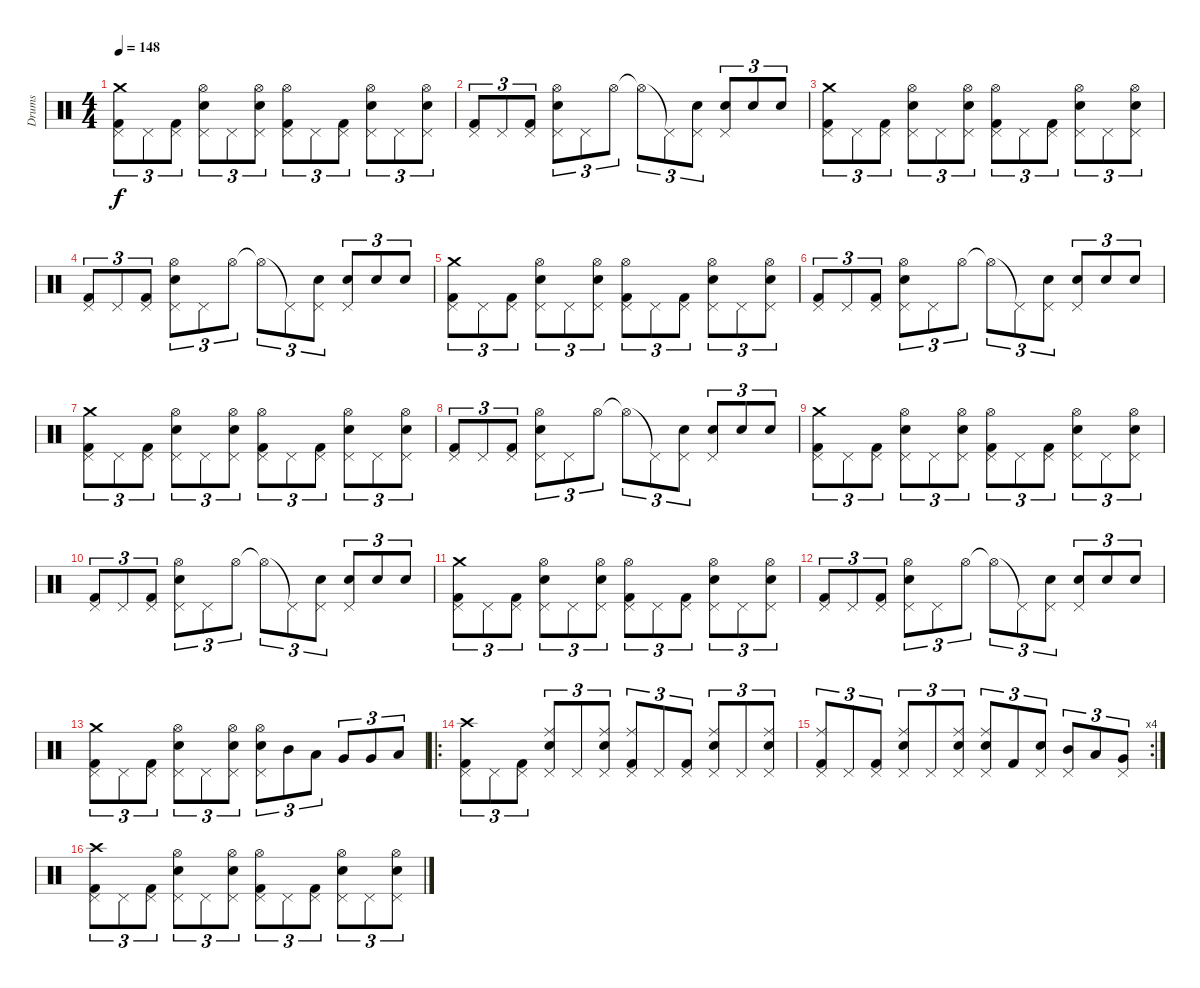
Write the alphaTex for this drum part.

\track ("Drums" "Drums") {instrument percussion}
\staff {score}
\articulation defaults
\ts (4 4)
\tempo 148
\clef neutral
\ks c
("Kick (hit) 2" "Pedal Hi-Hat (hit)" "Crash medium (hit)").8{tu (3 2) dy f} "Pedal Hi-Hat (hit)".8{tu (3 2)} ("Kick (hit) 2" "Pedal Hi-Hat (hit)").8{tu (3 2)} ("Snare (hit) 2" "Pedal Hi-Hat (hit)" "Hi-Hat (open)").8{tu (3 2)} "Pedal Hi-Hat (hit)".8{tu (3 2)} ("Snare (hit) 2" "Pedal Hi-Hat (hit)" "Hi-Hat (open)").8{tu (3 2)} ("Kick (hit) 2" "Pedal Hi-Hat (hit)" "Hi-Hat (open)").8{tu (3 2)} "Pedal Hi-Hat (hit)".8{tu (3 2)} ("Kick (hit) 2" "Pedal Hi-Hat (hit)").8{tu (3 2)} ("Snare (hit) 2" "Pedal Hi-Hat (hit)" "Hi-Hat (open)").8{tu (3 2)} "Pedal Hi-Hat (hit)".8{tu (3 2)} ("Snare (hit) 2" "Pedal Hi-Hat (hit)" "Hi-Hat (open)").8{tu (3 2)} |
("Kick (hit) 2" "Pedal Hi-Hat (hit)").8{tu (3 2)} "Pedal Hi-Hat (hit)".8{tu (3 2)} ("Kick (hit) 2" "Pedal Hi-Hat (hit)").8{tu (3 2)} ("Snare (hit) 2" "Pedal Hi-Hat (hit)" "Hi-Hat (open)").8{tu (3 2)} "Pedal Hi-Hat (hit)".8{tu (3 2)} "Hi-Hat (open)".8{tu (3 2)} "Hi-Hat (open)"{t}.8{tu (3 2)} "Pedal Hi-Hat (hit)"{t}.8{tu (3 2)} ("Snare (hit) 2" "Pedal Hi-Hat (hit)").8{tu (3 2)} ("Snare (hit) 2" "Pedal Hi-Hat (hit)").8{tu (3 2)} "Snare (hit) 2".8{tu (3 2)} "Snare (hit) 2".8{tu (3 2)} |
("Kick (hit) 2" "Pedal Hi-Hat (hit)" "Crash medium (hit)").8{tu (3 2)} "Pedal Hi-Hat (hit)".8{tu (3 2)} ("Kick (hit) 2" "Pedal Hi-Hat (hit)").8{tu (3 2)} ("Snare (hit) 2" "Pedal Hi-Hat (hit)" "Hi-Hat (open)").8{tu (3 2)} "Pedal Hi-Hat (hit)".8{tu (3 2)} ("Snare (hit) 2" "Pedal Hi-Hat (hit)" "Hi-Hat (open)").8{tu (3 2)} ("Kick (hit) 2" "Pedal Hi-Hat (hit)" "Hi-Hat (open)").8{tu (3 2)} "Pedal Hi-Hat (hit)".8{tu (3 2)} ("Kick (hit) 2" "Pedal Hi-Hat (hit)").8{tu (3 2)} ("Snare (hit) 2" "Pedal Hi-Hat (hit)" "Hi-Hat (open)").8{tu (3 2)} "Pedal Hi-Hat (hit)".8{tu (3 2)} ("Snare (hit) 2" "Pedal Hi-Hat (hit)" "Hi-Hat (open)").8{tu (3 2)} |
("Kick (hit) 2" "Pedal Hi-Hat (hit)").8{tu (3 2)} "Pedal Hi-Hat (hit)".8{tu (3 2)} ("Kick (hit) 2" "Pedal Hi-Hat (hit)").8{tu (3 2)} ("Snare (hit) 2" "Pedal Hi-Hat (hit)" "Hi-Hat (open)").8{tu (3 2)} "Pedal Hi-Hat (hit)".8{tu (3 2)} "Hi-Hat (open)".8{tu (3 2)} "Hi-Hat (open)"{t}.8{tu (3 2)} "Pedal Hi-Hat (hit)"{t}.8{tu (3 2)} ("Snare (hit) 2" "Pedal Hi-Hat (hit)").8{tu (3 2)} ("Snare (hit) 2" "Pedal Hi-Hat (hit)").8{tu (3 2)} "Snare (hit) 2".8{tu (3 2)} "Snare (hit) 2".8{tu (3 2)} |
("Kick (hit) 2" "Pedal Hi-Hat (hit)" "Crash medium (hit)").8{tu (3 2)} "Pedal Hi-Hat (hit)".8{tu (3 2)} ("Kick (hit) 2" "Pedal Hi-Hat (hit)").8{tu (3 2)} ("Snare (hit) 2" "Pedal Hi-Hat (hit)" "Hi-Hat (open)").8{tu (3 2)} "Pedal Hi-Hat (hit)".8{tu (3 2)} ("Snare (hit) 2" "Pedal Hi-Hat (hit)" "Hi-Hat (open)").8{tu (3 2)} ("Kick (hit) 2" "Pedal Hi-Hat (hit)" "Hi-Hat (open)").8{tu (3 2)} "Pedal Hi-Hat (hit)".8{tu (3 2)} ("Kick (hit) 2" "Pedal Hi-Hat (hit)").8{tu (3 2)} ("Snare (hit) 2" "Pedal Hi-Hat (hit)" "Hi-Hat (open)").8{tu (3 2)} "Pedal Hi-Hat (hit)".8{tu (3 2)} ("Snare (hit) 2" "Pedal Hi-Hat (hit)" "Hi-Hat (open)").8{tu (3 2)} |
("Kick (hit) 2" "Pedal Hi-Hat (hit)").8{tu (3 2)} "Pedal Hi-Hat (hit)".8{tu (3 2)} ("Kick (hit) 2" "Pedal Hi-Hat (hit)").8{tu (3 2)} ("Snare (hit) 2" "Pedal Hi-Hat (hit)" "Hi-Hat (open)").8{tu (3 2)} "Pedal Hi-Hat (hit)".8{tu (3 2)} "Hi-Hat (open)".8{tu (3 2)} "Hi-Hat (open)"{t}.8{tu (3 2)} "Pedal Hi-Hat (hit)"{t}.8{tu (3 2)} ("Snare (hit) 2" "Pedal Hi-Hat (hit)").8{tu (3 2)} ("Snare (hit) 2" "Pedal Hi-Hat (hit)").8{tu (3 2)} "Snare (hit) 2".8{tu (3 2)} "Snare (hit) 2".8{tu (3 2)} |
("Kick (hit) 2" "Pedal Hi-Hat (hit)" "Crash medium (hit)").8{tu (3 2)} "Pedal Hi-Hat (hit)".8{tu (3 2)} ("Kick (hit) 2" "Pedal Hi-Hat (hit)").8{tu (3 2)} ("Snare (hit) 2" "Pedal Hi-Hat (hit)" "Hi-Hat (open)").8{tu (3 2)} "Pedal Hi-Hat (hit)".8{tu (3 2)} ("Snare (hit) 2" "Pedal Hi-Hat (hit)" "Hi-Hat (open)").8{tu (3 2)} ("Kick (hit) 2" "Pedal Hi-Hat (hit)" "Hi-Hat (open)").8{tu (3 2)} "Pedal Hi-Hat (hit)".8{tu (3 2)} ("Kick (hit) 2" "Pedal Hi-Hat (hit)").8{tu (3 2)} ("Snare (hit) 2" "Pedal Hi-Hat (hit)" "Hi-Hat (open)").8{tu (3 2)} "Pedal Hi-Hat (hit)".8{tu (3 2)} ("Snare (hit) 2" "Pedal Hi-Hat (hit)" "Hi-Hat (open)").8{tu (3 2)} |
("Kick (hit) 2" "Pedal Hi-Hat (hit)").8{tu (3 2)} "Pedal Hi-Hat (hit)".8{tu (3 2)} ("Kick (hit) 2" "Pedal Hi-Hat (hit)").8{tu (3 2)} ("Snare (hit) 2" "Pedal Hi-Hat (hit)" "Hi-Hat (open)").8{tu (3 2)} "Pedal Hi-Hat (hit)".8{tu (3 2)} "Hi-Hat (open)".8{tu (3 2)} "Hi-Hat (open)"{t}.8{tu (3 2)} "Pedal Hi-Hat (hit)"{t}.8{tu (3 2)} ("Snare (hit) 2" "Pedal Hi-Hat (hit)").8{tu (3 2)} ("Snare (hit) 2" "Pedal Hi-Hat (hit)").8{tu (3 2)} "Snare (hit) 2".8{tu (3 2)} "Snare (hit) 2".8{tu (3 2)} |
("Kick (hit) 2" "Pedal Hi-Hat (hit)" "Crash medium (hit)").8{tu (3 2)} "Pedal Hi-Hat (hit)".8{tu (3 2)} ("Kick (hit) 2" "Pedal Hi-Hat (hit)").8{tu (3 2)} ("Snare (hit) 2" "Pedal Hi-Hat (hit)" "Hi-Hat (open)").8{tu (3 2)} "Pedal Hi-Hat (hit)".8{tu (3 2)} ("Snare (hit) 2" "Pedal Hi-Hat (hit)" "Hi-Hat (open)").8{tu (3 2)} ("Kick (hit) 2" "Pedal Hi-Hat (hit)" "Hi-Hat (open)").8{tu (3 2)} "Pedal Hi-Hat (hit)".8{tu (3 2)} ("Kick (hit) 2" "Pedal Hi-Hat (hit)").8{tu (3 2)} ("Snare (hit) 2" "Pedal Hi-Hat (hit)" "Hi-Hat (open)").8{tu (3 2)} "Pedal Hi-Hat (hit)".8{tu (3 2)} ("Snare (hit) 2" "Pedal Hi-Hat (hit)" "Hi-Hat (open)").8{tu (3 2)} |
("Kick (hit) 2" "Pedal Hi-Hat (hit)").8{tu (3 2)} "Pedal Hi-Hat (hit)".8{tu (3 2)} ("Kick (hit) 2" "Pedal Hi-Hat (hit)").8{tu (3 2)} ("Snare (hit) 2" "Pedal Hi-Hat (hit)" "Hi-Hat (open)").8{tu (3 2)} "Pedal Hi-Hat (hit)".8{tu (3 2)} "Hi-Hat (open)".8{tu (3 2)} "Hi-Hat (open)"{t}.8{tu (3 2)} "Pedal Hi-Hat (hit)"{t}.8{tu (3 2)} ("Snare (hit) 2" "Pedal Hi-Hat (hit)").8{tu (3 2)} ("Snare (hit) 2" "Pedal Hi-Hat (hit)").8{tu (3 2)} "Snare (hit) 2".8{tu (3 2)} "Snare (hit) 2".8{tu (3 2)} |
("Kick (hit) 2" "Pedal Hi-Hat (hit)" "Crash medium (hit)").8{tu (3 2)} "Pedal Hi-Hat (hit)".8{tu (3 2)} ("Kick (hit) 2" "Pedal Hi-Hat (hit)").8{tu (3 2)} ("Snare (hit) 2" "Pedal Hi-Hat (hit)" "Hi-Hat (open)").8{tu (3 2)} "Pedal Hi-Hat (hit)".8{tu (3 2)} ("Snare (hit) 2" "Pedal Hi-Hat (hit)" "Hi-Hat (open)").8{tu (3 2)} ("Kick (hit) 2" "Pedal Hi-Hat (hit)" "Hi-Hat (open)").8{tu (3 2)} "Pedal Hi-Hat (hit)".8{tu (3 2)} ("Kick (hit) 2" "Pedal Hi-Hat (hit)").8{tu (3 2)} ("Snare (hit) 2" "Pedal Hi-Hat (hit)" "Hi-Hat (open)").8{tu (3 2)} "Pedal Hi-Hat (hit)".8{tu (3 2)} ("Snare (hit) 2" "Pedal Hi-Hat (hit)" "Hi-Hat (open)").8{tu (3 2)} |
("Kick (hit) 2" "Pedal Hi-Hat (hit)").8{tu (3 2)} "Pedal Hi-Hat (hit)".8{tu (3 2)} ("Kick (hit) 2" "Pedal Hi-Hat (hit)").8{tu (3 2)} ("Snare (hit) 2" "Pedal Hi-Hat (hit)" "Hi-Hat (open)").8{tu (3 2)} "Pedal Hi-Hat (hit)".8{tu (3 2)} "Hi-Hat (open)".8{tu (3 2)} "Hi-Hat (open)"{t}.8{tu (3 2)} "Pedal Hi-Hat (hit)"{t}.8{tu (3 2)} ("Snare (hit) 2" "Pedal Hi-Hat (hit)").8{tu (3 2)} ("Snare (hit) 2" "Pedal Hi-Hat (hit)").8{tu (3 2)} "Snare (hit) 2".8{tu (3 2)} "Snare (hit) 2".8{tu (3 2)} |
("Kick (hit) 2" "Pedal Hi-Hat (hit)" "Crash medium (hit)").8{tu (3 2)} "Pedal Hi-Hat (hit)".8{tu (3 2)} ("Kick (hit) 2" "Pedal Hi-Hat (hit)").8{tu (3 2)} ("Snare (hit) 2" "Pedal Hi-Hat (hit)" "Hi-Hat (open)").8{tu (3 2)} "Pedal Hi-Hat (hit)".8{tu (3 2)} ("Snare (hit) 2" "Pedal Hi-Hat (hit)" "Hi-Hat (open)").8{tu (3 2)} ("Snare (hit) 2" "Pedal Hi-Hat (hit)" "Hi-Hat (open)").8{tu (3 2)} "Mid Tom (hit)".8{tu (3 2)} "Low Tom (hit)".8{tu (3 2)} "Very Low Tom (hit)".8{tu (3 2)} "Very Low Tom (hit)".8{tu (3 2)} "Low Floor Tom (hit)".8{tu (3 2)} |
\ro
("Kick (hit) 2" "Pedal Hi-Hat (hit)" "Crash high (hit)").8{tu (3 2)} "Pedal Hi-Hat (hit)".8{tu (3 2)} ("Kick (hit) 2" "Pedal Hi-Hat (hit)").8{tu (3 2)} ("Snare (hit) 2" "Pedal Hi-Hat (hit)" "Ride (middle)").8{tu (3 2)} "Pedal Hi-Hat (hit)".8{tu (3 2)} ("Snare (hit) 2" "Pedal Hi-Hat (hit)" "Ride (middle)").8{tu (3 2)} ("Kick (hit) 2" "Pedal Hi-Hat (hit)" "Ride (middle)").8{tu (3 2)} "Pedal Hi-Hat (hit)".8{tu (3 2)} ("Kick (hit) 2" "Pedal Hi-Hat (hit)").8{tu (3 2)} ("Snare (hit) 2" "Pedal Hi-Hat (hit)" "Ride (middle)").8{tu (3 2)} "Pedal Hi-Hat (hit)".8{tu (3 2)} ("Snare (hit) 2" "Pedal Hi-Hat (hit)" "Ride (middle)").8{tu (3 2)} |
\rc 4
("Kick (hit) 2" "Pedal Hi-Hat (hit)" "Ride (middle)").8{tu (3 2)} "Pedal Hi-Hat (hit)".8{tu (3 2)} ("Kick (hit) 2" "Pedal Hi-Hat (hit)").8{tu (3 2)} ("Snare (hit) 2" "Pedal Hi-Hat (hit)" "Ride (middle)").8{tu (3 2)} "Pedal Hi-Hat (hit)".8{tu (3 2)} ("Snare (hit) 2" "Pedal Hi-Hat (hit)" "Ride (middle)").8{tu (3 2)} ("Snare (hit) 2" "Pedal Hi-Hat (hit)" "Ride (middle)").8{tu (3 2)} "Kick (hit) 2".8{tu (3 2)} ("Snare (hit) 2" "Pedal Hi-Hat (hit)").8{tu (3 2)} ("Mid Tom (hit)" "Pedal Hi-Hat (hit)").8{tu (3 2)} "Low Tom (hit)".8{tu (3 2)} ("Very Low Tom (hit)" "Pedal Hi-Hat (hit)").8{tu (3 2)} |
("Kick (hit) 2" "Pedal Hi-Hat (hit)" "Crash high (hit)").8{tu (3 2)} "Pedal Hi-Hat (hit)".8{tu (3 2)} ("Kick (hit) 2" "Pedal Hi-Hat (hit)").8{tu (3 2)} ("Snare (hit) 2" "Pedal Hi-Hat (hit)" "Hi-Hat (open)").8{tu (3 2)} "Pedal Hi-Hat (hit)".8{tu (3 2)} ("Snare (hit) 2" "Pedal Hi-Hat (hit)" "Hi-Hat (open)").8{tu (3 2)} ("Kick (hit) 2" "Pedal Hi-Hat (hit)" "Hi-Hat (open)").8{tu (3 2)} "Pedal Hi-Hat (hit)".8{tu (3 2)} ("Kick (hit) 2" "Pedal Hi-Hat (hit)").8{tu (3 2)} ("Snare (hit) 2" "Pedal Hi-Hat (hit)" "Hi-Hat (open)").8{tu (3 2)} "Pedal Hi-Hat (hit)".8{tu (3 2)} ("Snare (hit) 2" "Pedal Hi-Hat (hit)" "Hi-Hat (open)").8{tu (3 2)}
